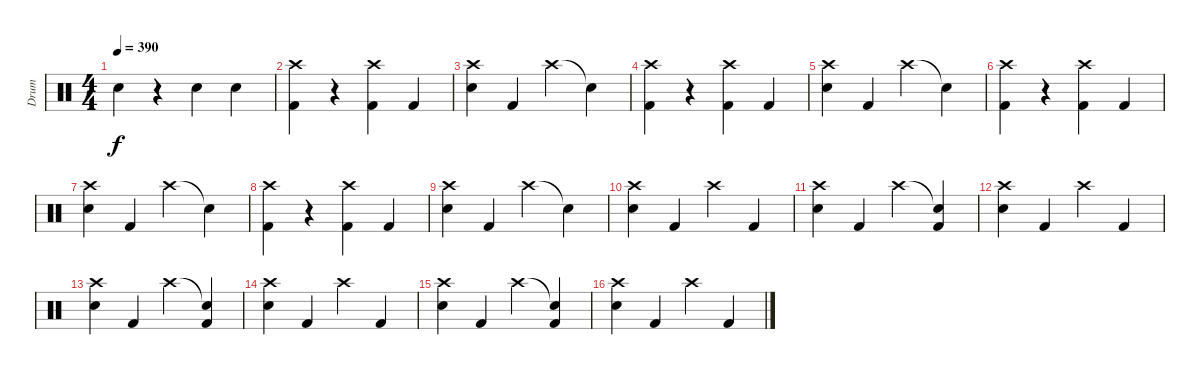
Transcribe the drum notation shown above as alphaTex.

\track ("Drum" "Drum") {instrument percussion}
\staff {score}
\articulation defaults
\ts (4 4)
\tempo 390
\clef neutral
\ks c "Electric Snare (hit)".4{dy f}
r.4 "Electric Snare (hit)".4 "Electric Snare (hit)".4 |
("Crash high (hit)" "Kick (hit) 2").4 r.4 ("Crash high (hit)" "Kick (hit) 2").4 "Kick (hit) 2".4 |
("Crash high (hit)" "Electric Snare (hit)").4 "Kick (hit) 2".4 "Crash high (hit)".4 "Snare (hit)"{t}.4 |
("Crash high (hit)" "Kick (hit) 2").4 r.4 ("Crash high (hit)" "Kick (hit) 2").4 "Kick (hit) 2".4 |
("Crash high (hit)" "Electric Snare (hit)").4 "Kick (hit) 2".4 "Crash high (hit)".4 "Snare (hit)"{t}.4 |
("Crash high (hit)" "Kick (hit) 2").4 r.4 ("Crash high (hit)" "Kick (hit) 2").4 "Kick (hit) 2".4 |
("Crash high (hit)" "Electric Snare (hit)").4 "Kick (hit) 2".4 "Crash high (hit)".4 "Snare (hit)"{t}.4 |
("Crash high (hit)" "Kick (hit) 2").4 r.4 ("Crash high (hit)" "Kick (hit) 2").4 "Kick (hit) 2".4 |
("Crash high (hit)" "Electric Snare (hit)").4 "Kick (hit) 2".4 "Crash high (hit)".4 "Snare (hit)"{t}.4 |
("Crash high (hit)" "Electric Snare (hit)").4 "Kick (hit) 2".4 "Crash high (hit)".4 "Kick (hit) 2".4 |
("Crash high (hit)" "Electric Snare (hit)").4 "Kick (hit) 2".4 "Crash high (hit)".4 ("Snare (hit)"{t} "Kick (hit) 2").4 |
("Crash high (hit)" "Electric Snare (hit)").4 "Kick (hit) 2".4 "Crash high (hit)".4 "Kick (hit) 2".4 |
("Crash high (hit)" "Electric Snare (hit)").4 "Kick (hit) 2".4 "Crash high (hit)".4 ("Snare (hit)"{t} "Kick (hit) 2").4 |
("Crash high (hit)" "Electric Snare (hit)").4 "Kick (hit) 2".4 "Crash high (hit)".4 "Kick (hit) 2".4 |
("Crash high (hit)" "Electric Snare (hit)").4 "Kick (hit) 2".4 "Crash high (hit)".4 ("Snare (hit)"{t} "Kick (hit) 2").4 |
("Crash high (hit)" "Electric Snare (hit)").4 "Kick (hit) 2".4 "Crash high (hit)".4 "Kick (hit) 2".4
